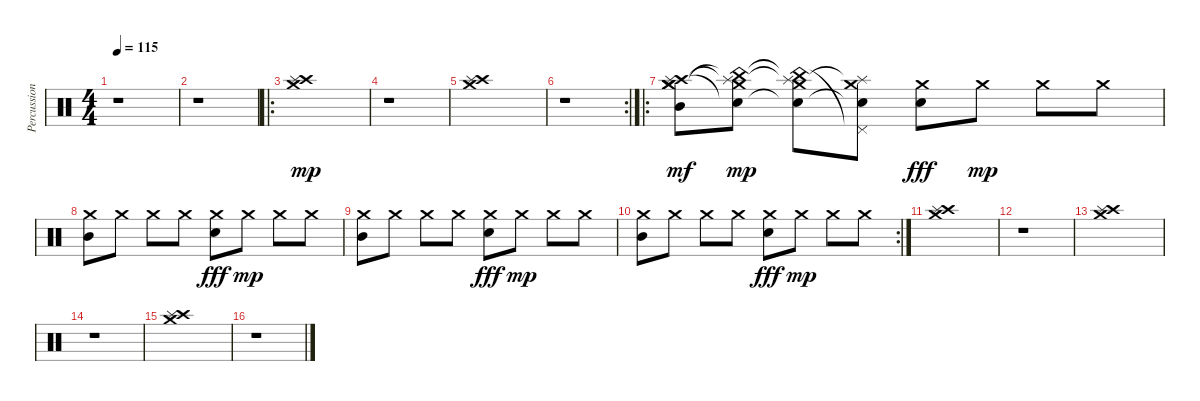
\track ("Percussion" "Percussion") {instrument percussion}
\staff {score}
\articulation defaults
\ts (4 4)
\tempo 115
\clef neutral
\ks c
r.1{dy mp} |
r.1 |
\ro
("Crash medium (hit)" "Crash high (hit)" "Splash (hit)").1 |
r.1 |
("Crash medium (hit)" "Crash high (hit)" "Splash (hit)").1 |
\rc 2
r.1 |
\ro
("Crash medium (hit)" "Crash high (hit)" "Crash medium (hit)" "Splash (hit)" "Mid Tom (hit)").8{dy mf} ("China (hit)"{t} "Snare (hit)"{t} "Crash medium (hit)" "Splash (hit)"{t}).8{dy mp} ("China (hit)"{t} "Snare (hit)"{t} "Crash medium (hit)" "Splash (hit)"{t}).8 ("Pedal Hi-Hat (hit)"{t} "Snare (hit)"{t} "Crash medium (hit)" "Splash (hit)"{t}).8 ("Crash medium (hit)" "Electric Snare (hit)").8{dy fff} "Crash medium (hit)".8{dy mp} "Crash medium (hit)".8 "Crash medium (hit)".8 |
("Crash medium (hit)" "Mid Tom (hit)").8 "Crash medium (hit)".8 "Crash medium (hit)".8 "Crash medium (hit)".8 ("Crash medium (hit)" "Electric Snare (hit)").8{dy fff} "Crash medium (hit)".8{dy mp} "Crash medium (hit)".8 "Crash medium (hit)".8 |
("Crash medium (hit)" "Mid Tom (hit)").8 "Crash medium (hit)".8 "Crash medium (hit)".8 "Crash medium (hit)".8 ("Crash medium (hit)" "Electric Snare (hit)").8{dy fff} "Crash medium (hit)".8{dy mp} "Crash medium (hit)".8 "Crash medium (hit)".8 |
\rc 2
("Crash medium (hit)" "Mid Tom (hit)").8 "Crash medium (hit)".8 "Crash medium (hit)".8 "Crash medium (hit)".8 ("Crash medium (hit)" "Electric Snare (hit)").8{dy fff} "Crash medium (hit)".8{dy mp} "Crash medium (hit)".8 "Crash medium (hit)".8 |
("Crash medium (hit)" "Crash high (hit)" "Splash (hit)").1 |
r.1 |
("Crash medium (hit)" "Crash high (hit)" "Splash (hit)").1 |
r.1 |
("Crash medium (hit)" "Crash high (hit)" "Splash (hit)").1 |
r.1
